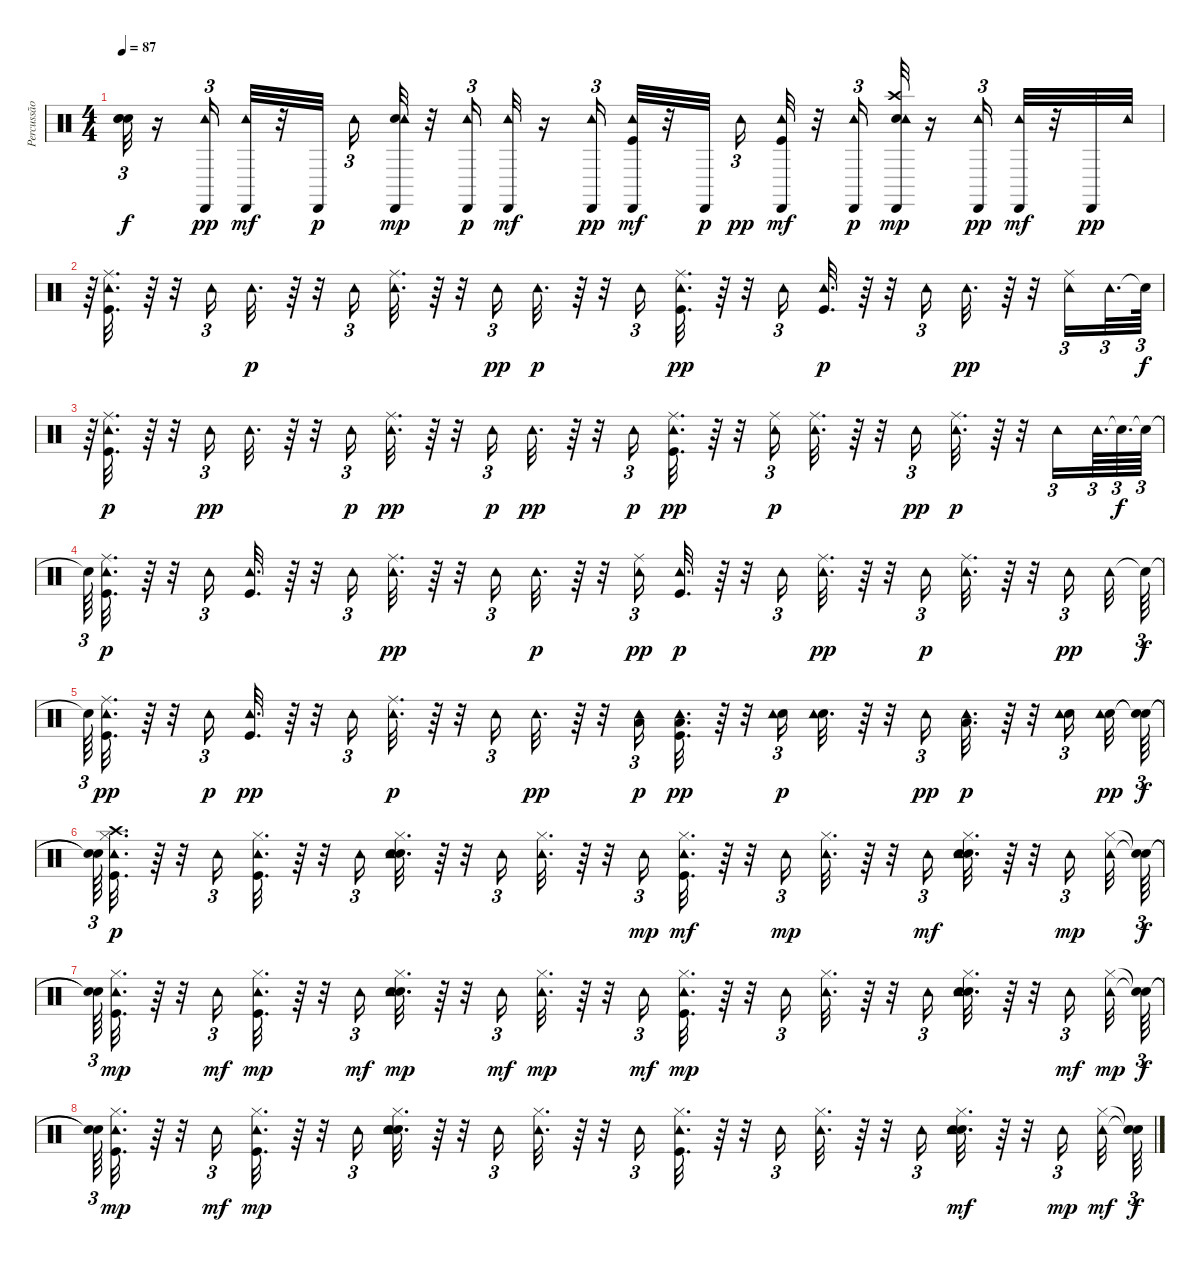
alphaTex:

\track ("Percussão" "Percussão") {instrument percussion}
\staff {score}
\articulation defaults
\ts (4 4)
\tempo 87
\clef neutral
\ks c
("Snare (hit)"{t} "Snare (hit)"{t} "Snare (hit)"{t}).32{tu (3 2) dy f} r.16 ("Cabasa (hit)" "Tambourine (hit)").16{tu (3 2) dy pp} ("Tambourine (hit)" "Cabasa (hit)").32{dy mf} r.32 "Cabasa (hit)".32{dy p} "Tambourine (hit)".16{tu (3 2)} ("Electric Snare (hit)" "Tambourine (hit)" "Cabasa (hit)").32{dy mp} r.32 ("Cabasa (hit)" "Tambourine (hit)").16{tu (3 2) dy p} ("Tambourine (hit)" "Cabasa (hit)").32{dy mf} r.16 ("Cabasa (hit)" "Tambourine (hit)").16{tu (3 2) dy pp} ("Kick (hit)" "Tambourine (hit)" "Cabasa (hit)").32{dy mf} r.32 "Cabasa (hit)".32{dy p beam splitsecondary} "Tambourine (hit)".16{tu (3 2) dy pp} ("Kick (hit)" "Tambourine (hit)" "Cabasa (hit)").32{dy mf} r.32 ("Cabasa (hit)" "Tambourine (hit)").16{tu (3 2) dy p} ("Electric Snare (hit)" "Crash high (hit)" "Tambourine (hit)" "Cabasa (hit)").32{dy mp} r.16 ("Cabasa (hit)" "Tambourine (hit)").16{tu (3 2) dy pp} ("Tambourine (hit)" "Cabasa (hit)").32{dy mf} r.32 "Cabasa (hit)".32{dy pp} "Tambourine (hit)".32 |
r.64{tu (3 2)} ("Kick (hit)" "Ride (middle)" "Tambourine (hit)").32{d} r.64 r.32 "Tambourine (hit)".16{tu (3 2)} "Tambourine (hit)".32{d dy p} r.64 r.32 "Tambourine (hit)".16{tu (3 2)} ("Ride (middle)" "Tambourine (hit)").32{d} r.64 r.32 "Tambourine (hit)".16{tu (3 2) dy pp} "Tambourine (hit)".32{d dy p} r.64 r.32 "Tambourine (hit)".16{tu (3 2)} ("Kick (hit)" "Ride (middle)" "Tambourine (hit)").32{d dy pp} r.64 r.32 "Tambourine (hit)".16{tu (3 2)} ("Kick (hit)" "Tambourine (hit)").32{d dy p} r.64 r.32 "Tambourine (hit)".16{tu (3 2)} "Tambourine (hit)".32{d dy pp} r.64 r.32 ("Ride (middle)" "Tambourine (hit)").16{tu (3 2)} "Tambourine (hit)".32{d tu (3 2)} "Snare (hit)"{t}.64{tu (3 2) dy f} |
r.64{tu (3 2)} ("Kick (hit)" "Ride (middle)" "Tambourine (hit)").32{d dy p} r.64 r.32 "Tambourine (hit)".16{tu (3 2) dy pp} "Tambourine (hit)".32{d} r.64 r.32 "Tambourine (hit)".16{tu (3 2) dy p} ("Ride (middle)" "Tambourine (hit)").32{d dy pp} r.64 r.32 "Tambourine (hit)".16{tu (3 2) dy p} "Tambourine (hit)".32{d dy pp} r.64 r.32 "Tambourine (hit)".16{tu (3 2) dy p} ("Kick (hit)" "Ride (middle)" "Tambourine (hit)").32{d dy pp} r.64 r.32 ("Ride (middle)" "Tambourine (hit)").16{tu (3 2) dy p} ("Ride (middle)" "Tambourine (hit)").32{d} r.64 r.32 "Tambourine (hit)".16{tu (3 2) dy pp} ("Ride (middle)" "Tambourine (hit)").32{d dy p} r.64 r.32 "Tambourine (hit)".16{tu (3 2)} "Tambourine (hit)".64{d tu (3 2)} "Snare (hit)"{t}.64{d tu (3 2) dy f} "Snare (hit)"{t}.64{tu (3 2)} |
"Snare (hit)"{t}.64{tu (3 2)} ("Kick (hit)" "Ride (middle)" "Tambourine (hit)").32{d dy p} r.64 r.32 "Tambourine (hit)".16{tu (3 2)} ("Kick (hit)" "Tambourine (hit)").32{d} r.64 r.32 "Tambourine (hit)".16{tu (3 2)} ("Ride (middle)" "Tambourine (hit)").32{d dy pp} r.64 r.32 "Tambourine (hit)".16{tu (3 2)} "Tambourine (hit)".32{d dy p} r.64 r.32 ("Ride (middle)" "Tambourine (hit)").16{tu (3 2) dy pp} ("Kick (hit)" "Tambourine (hit)").32{d dy p} r.64 r.32 "Tambourine (hit)".16{tu (3 2)} ("Ride (middle)" "Tambourine (hit)").32{d dy pp} r.64 r.32 "Tambourine (hit)".16{tu (3 2) dy p} ("Ride (middle)" "Tambourine (hit)").32{d} r.64 r.32 "Tambourine (hit)".16{tu (3 2) dy pp beam splitsecondary} "Tambourine (hit)".32 "Snare (hit)"{t}.64{tu (3 2) dy f} |
"Snare (hit)"{t}.64{tu (3 2)} ("Kick (hit)" "Ride (middle)" "Tambourine (hit)").32{d dy pp} r.64 r.32 "Tambourine (hit)".16{tu (3 2) dy p} ("Kick (hit)" "Tambourine (hit)").32{d dy pp} r.64 r.32 "Tambourine (hit)".16{tu (3 2)} ("Ride (middle)" "Tambourine (hit)").32{d dy p} r.64 r.32 "Tambourine (hit)".16{tu (3 2)} "Tambourine (hit)".32{d dy pp} r.64 r.32 ("Low Tom (hit)" "Tambourine (hit)").16{tu (3 2) dy p} ("Kick (hit)" "Low Tom (hit)" "Tambourine (hit)").32{d dy pp} r.64 r.32 ("Electric Snare (hit)" "Tambourine (hit)").16{tu (3 2) dy p} ("Electric Snare (hit)" "Tambourine (hit)").32{d} r.64 r.32 "Tambourine (hit)".16{tu (3 2) dy pp} ("Low Tom (hit)" "Tambourine (hit)").32{d dy p} r.64 r.32 ("Electric Snare (hit)" "Tambourine (hit)").16{tu (3 2) beam splitsecondary} ("Electric Snare (hit)" "Tambourine (hit)").32{dy pp} ("Snare (hit)"{t} "Snare (hit)"{t}).64{tu (3 2) dy f} |
("Snare (hit)"{t} "Snare (hit)"{t}).64{tu (3 2)} ("Kick (hit)" "Hi-Hat (closed)" "Crash high (hit)" "Tambourine (hit)").32{d dy p} r.64 r.32 "Tambourine (hit)".16{tu (3 2)} ("Kick (hit)" "Hi-Hat (closed)" "Tambourine (hit)").32{d} r.64 r.32 "Tambourine (hit)".16{tu (3 2)} ("Electric Snare (hit)" "Hi-Hat (closed)" "Hand Clap (hit)" "Tambourine (hit)").32{d} r.64 r.32 "Tambourine (hit)".16{tu (3 2)} ("Hi-Hat (closed)" "Tambourine (hit)").32{d} r.64 r.32 "Tambourine (hit)".16{tu (3 2) dy mp} ("Kick (hit)" "Hi-Hat (closed)" "Tambourine (hit)").32{d dy mf} r.64 r.32 "Tambourine (hit)".16{tu (3 2) dy mp} ("Hi-Hat (closed)" "Tambourine (hit)").32{d} r.64 r.32 "Tambourine (hit)".16{tu (3 2) dy mf} ("Electric Snare (hit)" "Hi-Hat (closed)" "Hand Clap (hit)" "Tambourine (hit)").32{d} r.64 r.32 "Tambourine (hit)".16{tu (3 2) dy mp beam splitsecondary} ("Hi-Hat (closed)" "Tambourine (hit)").32 ("Snare (hit)"{t} "Snare (hit)"{t}).64{tu (3 2) dy f} |
("Snare (hit)"{t} "Snare (hit)"{t}).64{tu (3 2)} ("Kick (hit)" "Hi-Hat (closed)" "Tambourine (hit)").32{d dy mp} r.64 r.32 "Tambourine (hit)".16{tu (3 2) dy mf} ("Kick (hit)" "Hi-Hat (closed)" "Tambourine (hit)").32{d dy mp} r.64 r.32 "Tambourine (hit)".16{tu (3 2) dy mf} ("Electric Snare (hit)" "Hi-Hat (closed)" "Hand Clap (hit)" "Tambourine (hit)").32{d dy mp} r.64 r.32 "Tambourine (hit)".16{tu (3 2) dy mf} ("Hi-Hat (closed)" "Tambourine (hit)").32{d dy mp} r.64 r.32 "Tambourine (hit)".16{tu (3 2) dy mf} ("Kick (hit)" "Hi-Hat (closed)" "Tambourine (hit)").32{d dy mp} r.64 r.32 "Tambourine (hit)".16{tu (3 2)} ("Hi-Hat (closed)" "Tambourine (hit)").32{d} r.64 r.32 "Tambourine (hit)".16{tu (3 2)} ("Electric Snare (hit)" "Hi-Hat (closed)" "Hand Clap (hit)" "Tambourine (hit)").32{d} r.64 r.32 "Tambourine (hit)".16{tu (3 2) dy mf beam splitsecondary} ("Hi-Hat (closed)" "Tambourine (hit)").32{dy mp} ("Snare (hit)"{t} "Snare (hit)"{t}).64{tu (3 2) dy f} |
("Snare (hit)"{t} "Snare (hit)"{t}).64{tu (3 2)} ("Kick (hit)" "Hi-Hat (closed)" "Tambourine (hit)").32{d dy mp} r.64 r.32 "Tambourine (hit)".16{tu (3 2) dy mf} ("Kick (hit)" "Hi-Hat (closed)" "Tambourine (hit)").32{d dy mp} r.64 r.32 "Tambourine (hit)".16{tu (3 2)} ("Electric Snare (hit)" "Hi-Hat (closed)" "Hand Clap (hit)" "Tambourine (hit)").32{d} r.64 r.32 "Tambourine (hit)".16{tu (3 2)} ("Hi-Hat (closed)" "Tambourine (hit)").32{d} r.64 r.32 "Tambourine (hit)".16{tu (3 2)} ("Kick (hit)" "Hi-Hat (closed)" "Tambourine (hit)").32{d} r.64 r.32 "Tambourine (hit)".16{tu (3 2)} ("Hi-Hat (closed)" "Tambourine (hit)").32{d} r.64 r.32 "Tambourine (hit)".16{tu (3 2)} ("Electric Snare (hit)" "Hi-Hat (closed)" "Hand Clap (hit)" "Tambourine (hit)").32{d dy mf} r.64 r.32 "Tambourine (hit)".16{tu (3 2) dy mp beam splitsecondary} ("Hi-Hat (closed)" "Tambourine (hit)").32{dy mf} ("Snare (hit)"{t} "Snare (hit)"{t}).64{tu (3 2) dy f}
